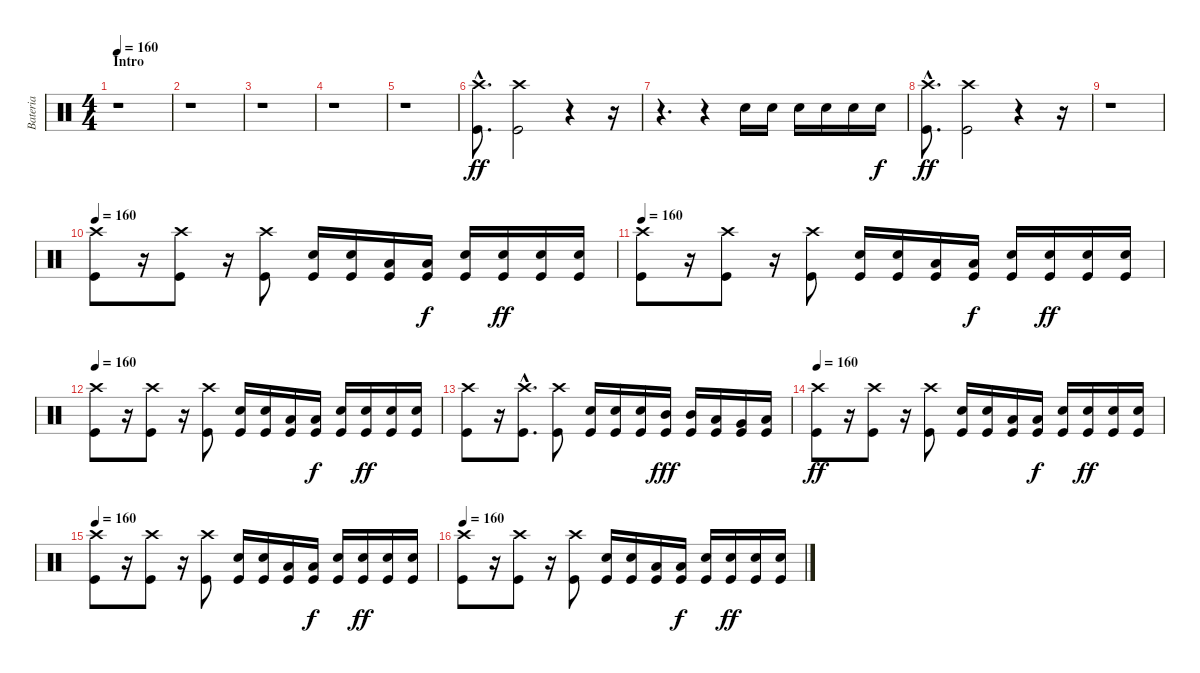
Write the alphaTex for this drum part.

\track ("Bateria" "Bateria") {instrument percussion}
\staff {score}
\articulation defaults
\ts (4 4)
\section ("" "Intro")
\tempo 160
\clef neutral
\ks c
r.1{dy ff} |
r.1 |
r.1 |
r.1 |
r.1 |
("Kick (hit)"{hac} "Crash high (hit)"{hac}).8{d} ("Kick (hit)" "Crash high (hit)").2 r.4 r.16 |
r.4{d} r.4 "Electric Snare (hit)".16 "Electric Snare (hit)".16 "Electric Snare (hit)".16 "Electric Snare (hit)".16 "Electric Snare (hit)".16 "Electric Snare (hit)".16{dy f} |
("Kick (hit)"{hac} "Crash high (hit)"{hac}).8{d dy ff} ("Kick (hit)" "Crash high (hit)").2 r.4 r.16 |
r.1 |
\tempo 160
("Kick (hit)" "Crash high (hit)").8 r.16 ("Kick (hit)" "Crash high (hit)").8 r.16 ("Kick (hit)" "Crash high (hit)").8 ("Kick (hit)" "Electric Snare (hit)").16 ("Kick (hit)" "Electric Snare (hit)").16 ("Kick (hit)" "Low Tom (hit)").16 ("Kick (hit)" "Low Tom (hit)").16{dy f} ("Kick (hit)" "Electric Snare (hit)").16 ("Kick (hit)" "Electric Snare (hit)").16{dy ff} ("Kick (hit)" "Electric Snare (hit)").16 ("Kick (hit)" "Electric Snare (hit)").16 |
\tempo 160
("Kick (hit)" "Crash high (hit)").8 r.16 ("Kick (hit)" "Crash high (hit)").8 r.16 ("Kick (hit)" "Crash high (hit)").8 ("Kick (hit)" "Electric Snare (hit)").16 ("Kick (hit)" "Electric Snare (hit)").16 ("Kick (hit)" "Low Tom (hit)").16 ("Kick (hit)" "Low Tom (hit)").16{dy f} ("Kick (hit)" "Electric Snare (hit)").16 ("Kick (hit)" "Electric Snare (hit)").16{dy ff} ("Kick (hit)" "Electric Snare (hit)").16 ("Kick (hit)" "Electric Snare (hit)").16 |
\tempo 160
("Kick (hit)" "Crash high (hit)").8 r.16 ("Kick (hit)" "Crash high (hit)").8 r.16 ("Kick (hit)" "Crash high (hit)").8 ("Kick (hit)" "Electric Snare (hit)").16 ("Kick (hit)" "Electric Snare (hit)").16 ("Kick (hit)" "Low Tom (hit)").16 ("Kick (hit)" "Low Tom (hit)").16{dy f} ("Kick (hit)" "Electric Snare (hit)").16 ("Kick (hit)" "Electric Snare (hit)").16{dy ff} ("Kick (hit)" "Electric Snare (hit)").16 ("Kick (hit)" "Electric Snare (hit)").16 |
("Kick (hit)" "Crash high (hit)").8 r.16 ("Kick (hit)"{hac} "Crash high (hit)"{hac}).8{d} ("Kick (hit)" "Crash high (hit)").8 ("Kick (hit)" "Electric Snare (hit)").16 ("Kick (hit)" "Electric Snare (hit)").16 ("Kick (hit)" "Electric Snare (hit)").16 ("Kick (hit)" "Mid Tom (hit)").16{dy fff} ("Kick (hit)" "Mid Tom (hit)").16 ("Kick (hit)" "Low Tom (hit)").16 ("Kick (hit)" "Very Low Tom (hit)").16 ("Kick (hit)" "Low Floor Tom (hit)").16 |
\tempo 160
("Kick (hit)" "Crash high (hit)").8{dy ff} r.16 ("Kick (hit)" "Crash high (hit)").8 r.16 ("Kick (hit)" "Crash high (hit)").8 ("Kick (hit)" "Electric Snare (hit)").16 ("Kick (hit)" "Electric Snare (hit)").16 ("Kick (hit)" "Low Tom (hit)").16 ("Kick (hit)" "Low Tom (hit)").16{dy f} ("Kick (hit)" "Electric Snare (hit)").16 ("Kick (hit)" "Electric Snare (hit)").16{dy ff} ("Kick (hit)" "Electric Snare (hit)").16 ("Kick (hit)" "Electric Snare (hit)").16 |
\tempo 160
("Kick (hit)" "Crash high (hit)").8 r.16 ("Kick (hit)" "Crash high (hit)").8 r.16 ("Kick (hit)" "Crash high (hit)").8 ("Kick (hit)" "Electric Snare (hit)").16 ("Kick (hit)" "Electric Snare (hit)").16 ("Kick (hit)" "Low Tom (hit)").16 ("Kick (hit)" "Low Tom (hit)").16{dy f} ("Kick (hit)" "Electric Snare (hit)").16 ("Kick (hit)" "Electric Snare (hit)").16{dy ff} ("Kick (hit)" "Electric Snare (hit)").16 ("Kick (hit)" "Electric Snare (hit)").16 |
\tempo 160
("Kick (hit)" "Crash high (hit)").8 r.16 ("Kick (hit)" "Crash high (hit)").8 r.16 ("Kick (hit)" "Crash high (hit)").8 ("Kick (hit)" "Electric Snare (hit)").16 ("Kick (hit)" "Electric Snare (hit)").16 ("Kick (hit)" "Low Tom (hit)").16 ("Kick (hit)" "Low Tom (hit)").16{dy f} ("Kick (hit)" "Electric Snare (hit)").16 ("Kick (hit)" "Electric Snare (hit)").16{dy ff} ("Kick (hit)" "Electric Snare (hit)").16 ("Kick (hit)" "Electric Snare (hit)").16
